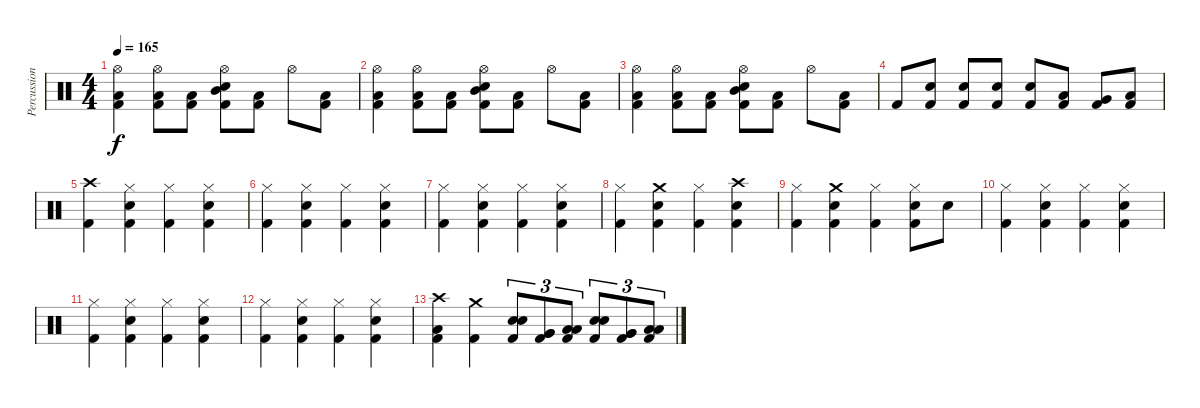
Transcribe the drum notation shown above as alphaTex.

\track ("Percussions" "Percussion") {instrument percussion}
\staff {score}
\articulation defaults
\ts (4 4)
\tempo 165
\clef neutral
\ks c
("Hi-Hat (open)" "Low Floor Tom (hit)" "Kick (hit) 2").4{dy f} ("Hi-Hat (open)" "Low Floor Tom (hit)" "Kick (hit) 2").8 ("Low Floor Tom (hit)" "Kick (hit) 2").8 ("Hi-Hat (open)" "Electric Snare (hit)" "Mid Tom (hit)" "Kick (hit) 2").8 ("Low Floor Tom (hit)" "Kick (hit) 2").8 "Hi-Hat (open)".8 ("Low Floor Tom (hit)" "Kick (hit) 2").8 |
("Hi-Hat (open)" "Low Floor Tom (hit)" "Kick (hit) 2").4 ("Hi-Hat (open)" "Low Floor Tom (hit)" "Kick (hit) 2").8 ("Low Floor Tom (hit)" "Kick (hit) 2").8 ("Hi-Hat (open)" "Electric Snare (hit)" "Mid Tom (hit)" "Kick (hit) 2").8 ("Low Floor Tom (hit)" "Kick (hit) 2").8 "Hi-Hat (open)".8 ("Low Floor Tom (hit)" "Kick (hit) 2").8 |
("Hi-Hat (open)" "Low Floor Tom (hit)" "Kick (hit) 2").4 ("Hi-Hat (open)" "Low Floor Tom (hit)" "Kick (hit) 2").8 ("Low Floor Tom (hit)" "Kick (hit) 2").8 ("Hi-Hat (open)" "Electric Snare (hit)" "Mid Tom (hit)" "Kick (hit) 2").8 ("Low Floor Tom (hit)" "Kick (hit) 2").8 "Hi-Hat (open)".8 ("Low Floor Tom (hit)" "Kick (hit) 2").8 |
"Kick (hit) 2".8 ("Electric Snare (hit)" "Kick (hit) 2").8 ("Electric Snare (hit)" "Kick (hit) 2").8 ("Electric Snare (hit)" "Kick (hit) 2").8 ("Electric Snare (hit)" "Kick (hit) 2").8 ("Low Tom (hit)" "Kick (hit) 2").8 ("Very Low Tom (hit)" "Kick (hit) 2").8 ("Low Floor Tom (hit)" "Kick (hit) 2").8 |
("Crash high (hit)" "Kick (hit) 2").4 ("Hi-Hat (closed)" "Electric Snare (hit)" "Kick (hit) 2").4 ("Hi-Hat (closed)" "Kick (hit) 2").4 ("Hi-Hat (closed)" "Electric Snare (hit)" "Kick (hit) 2").4 |
("Hi-Hat (closed)" "Kick (hit) 2").4 ("Hi-Hat (closed)" "Electric Snare (hit)" "Kick (hit) 2").4 ("Hi-Hat (closed)" "Kick (hit) 2").4 ("Hi-Hat (closed)" "Electric Snare (hit)" "Kick (hit) 2").4 |
("Hi-Hat (closed)" "Kick (hit) 2").4 ("Hi-Hat (closed)" "Electric Snare (hit)" "Kick (hit) 2").4 ("Hi-Hat (closed)" "Kick (hit) 2").4 ("Hi-Hat (closed)" "Electric Snare (hit)" "Kick (hit) 2").4 |
("Hi-Hat (closed)" "Kick (hit) 2").4 ("Crash medium (hit)" "Electric Snare (hit)" "Kick (hit) 2").4 ("Hi-Hat (closed)" "Kick (hit) 2").4 ("Crash high (hit)" "Electric Snare (hit)" "Kick (hit) 2").4 |
("Hi-Hat (closed)" "Kick (hit) 2").4 ("Crash medium (hit)" "Electric Snare (hit)" "Kick (hit) 2").4 ("Hi-Hat (closed)" "Kick (hit) 2").4 ("Hi-Hat (closed)" "Electric Snare (hit)" "Kick (hit) 2").8 "Electric Snare (hit)".8 |
("Hi-Hat (closed)" "Kick (hit) 2").4 ("Hi-Hat (closed)" "Electric Snare (hit)" "Kick (hit) 2").4 ("Hi-Hat (closed)" "Kick (hit) 2").4 ("Hi-Hat (closed)" "Electric Snare (hit)" "Kick (hit) 2").4 |
("Hi-Hat (closed)" "Kick (hit) 2").4 ("Hi-Hat (closed)" "Electric Snare (hit)" "Kick (hit) 2").4 ("Hi-Hat (closed)" "Kick (hit) 2").4 ("Hi-Hat (closed)" "Electric Snare (hit)" "Kick (hit) 2").4 |
("Hi-Hat (closed)" "Kick (hit) 2").4 ("Hi-Hat (closed)" "Electric Snare (hit)" "Kick (hit) 2").4 ("Hi-Hat (closed)" "Kick (hit) 2").4 ("Hi-Hat (closed)" "Electric Snare (hit)" "Kick (hit) 2").4 |
("Crash high (hit)" "Low Floor Tom (hit)" "Kick (hit) 2").4 ("Crash medium (hit)" "Kick (hit) 2").4 ("Electric Snare (hit)" "Electric Snare (hit)" "Kick (hit) 2").8{tu (3 2)} ("Very Low Tom (hit)" "Very Low Tom (hit)" "Kick (hit) 2").8{tu (3 2)} ("Low Floor Tom (hit)" "Low Floor Tom (hit)" "Kick (hit) 2").8{tu (3 2)} ("Electric Snare (hit)" "Electric Snare (hit)" "Kick (hit) 2").8{tu (3 2)} ("Very Low Tom (hit)" "Very Low Tom (hit)" "Kick (hit) 2").8{tu (3 2)} ("Low Floor Tom (hit)" "Low Floor Tom (hit)" "Kick (hit) 2").8{tu (3 2)}
